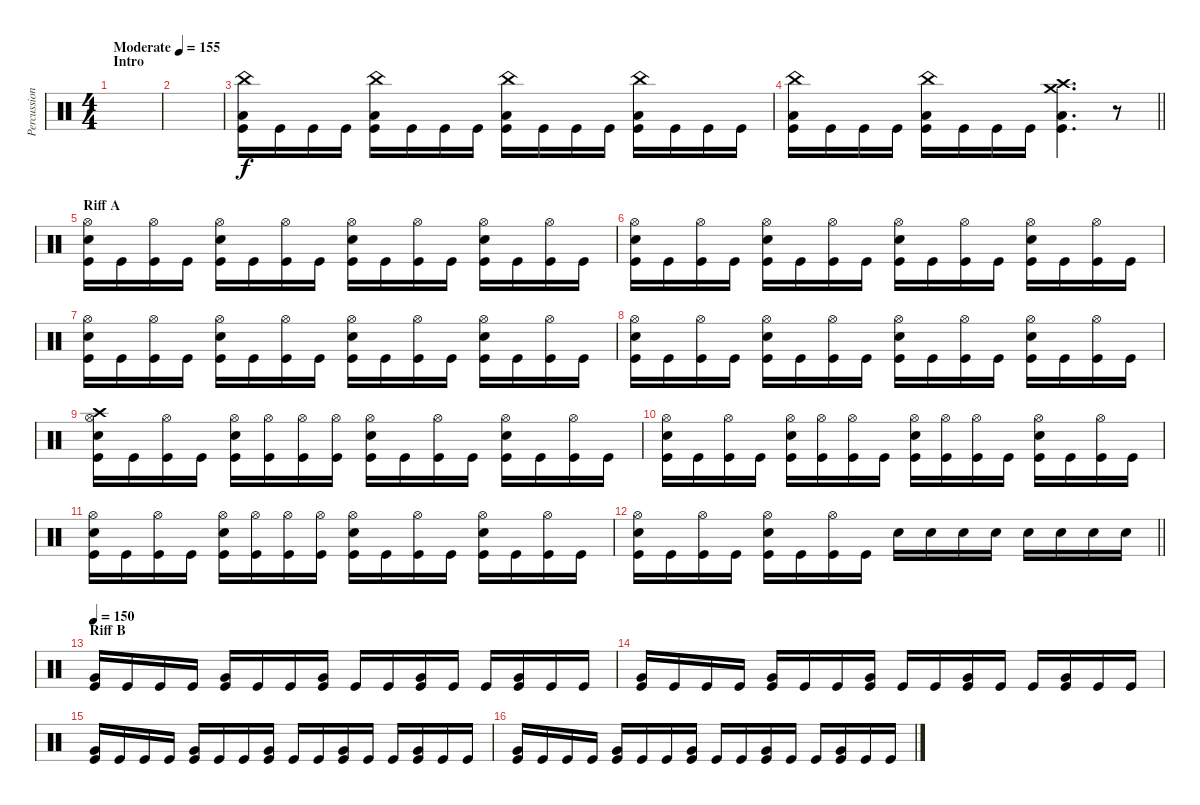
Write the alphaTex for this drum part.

\track ("Percussion" "Percussion") {instrument percussion}
\staff {score}
\articulation defaults
\ts (4 4)
\section ("" "Intro")
\tempo (155 "Moderate")
\clef neutral
\ks c
|
|
("China (hit)" "Low Floor Tom (hit)" "Kick (hit)").16 "Kick (hit)".16 "Kick (hit)".16 "Kick (hit)".16 ("China (hit)" "Low Floor Tom (hit)" "Kick (hit)").16 "Kick (hit)".16 "Kick (hit)".16 "Kick (hit)".16 ("China (hit)" "Low Floor Tom (hit)" "Kick (hit)").16 "Kick (hit)".16 "Kick (hit)".16 "Kick (hit)".16 ("China (hit)" "Low Floor Tom (hit)" "Kick (hit)").16 "Kick (hit)".16 "Kick (hit)".16 "Kick (hit)".16 |
\barLineRight lightlight
("China (hit)" "Low Floor Tom (hit)" "Kick (hit)").16 "Kick (hit)".16 "Kick (hit)".16 "Kick (hit)".16 ("China (hit)" "Low Floor Tom (hit)" "Kick (hit)").16 "Kick (hit)".16 "Kick (hit)".16 "Kick (hit)".16 ("Crash medium (hit)" "Crash high (hit)" "Low Floor Tom (hit)" "Kick (hit)").4{d} r.8 |
\section ("" "Riff A")
("Hi-Hat (open)" "Snare (hit) 2" "Kick (hit)").16 "Kick (hit)".16 ("Hi-Hat (open)" "Kick (hit)").16 "Kick (hit)".16 ("Hi-Hat (open)" "Snare (hit) 2" "Kick (hit)").16 "Kick (hit)".16 ("Hi-Hat (open)" "Kick (hit)").16 "Kick (hit)".16 ("Hi-Hat (open)" "Snare (hit) 2" "Kick (hit)").16 "Kick (hit)".16 ("Hi-Hat (open)" "Kick (hit)").16 "Kick (hit)".16 ("Hi-Hat (open)" "Snare (hit) 2" "Kick (hit)").16 "Kick (hit)".16 ("Hi-Hat (open)" "Kick (hit)").16 "Kick (hit)".16 |
("Hi-Hat (open)" "Snare (hit) 2" "Kick (hit)").16 "Kick (hit)".16 ("Hi-Hat (open)" "Kick (hit)").16 "Kick (hit)".16 ("Hi-Hat (open)" "Snare (hit) 2" "Kick (hit)").16 "Kick (hit)".16 ("Hi-Hat (open)" "Kick (hit)").16 "Kick (hit)".16 ("Hi-Hat (open)" "Snare (hit) 2" "Kick (hit)").16 "Kick (hit)".16 ("Hi-Hat (open)" "Kick (hit)").16 "Kick (hit)".16 ("Hi-Hat (open)" "Snare (hit) 2" "Kick (hit)").16 "Kick (hit)".16 ("Hi-Hat (open)" "Kick (hit)").16 "Kick (hit)".16 |
("Hi-Hat (open)" "Snare (hit) 2" "Kick (hit)").16 "Kick (hit)".16 ("Hi-Hat (open)" "Kick (hit)").16 "Kick (hit)".16 ("Hi-Hat (open)" "Snare (hit) 2" "Kick (hit)").16 "Kick (hit)".16 ("Hi-Hat (open)" "Kick (hit)").16 "Kick (hit)".16 ("Hi-Hat (open)" "Snare (hit) 2" "Kick (hit)").16 "Kick (hit)".16 ("Hi-Hat (open)" "Kick (hit)").16 "Kick (hit)".16 ("Hi-Hat (open)" "Snare (hit) 2" "Kick (hit)").16 "Kick (hit)".16 ("Hi-Hat (open)" "Kick (hit)").16 "Kick (hit)".16 |
("Hi-Hat (open)" "Snare (hit) 2" "Kick (hit)").16 "Kick (hit)".16 ("Hi-Hat (open)" "Kick (hit)").16 "Kick (hit)".16 ("Hi-Hat (open)" "Snare (hit) 2" "Kick (hit)").16 "Kick (hit)".16 ("Hi-Hat (open)" "Kick (hit)").16 "Kick (hit)".16 ("Hi-Hat (open)" "Snare (hit) 2" "Kick (hit)").16 "Kick (hit)".16 ("Hi-Hat (open)" "Kick (hit)").16 "Kick (hit)".16 ("Hi-Hat (open)" "Snare (hit) 2" "Kick (hit)").16 "Kick (hit)".16 ("Hi-Hat (open)" "Kick (hit)").16 "Kick (hit)".16 |
("Crash high (hit)" "Hi-Hat (open)" "Snare (hit) 2" "Kick (hit)").16 "Kick (hit)".16 ("Hi-Hat (open)" "Kick (hit)").16 "Kick (hit)".16 ("Hi-Hat (open)" "Snare (hit) 2" "Kick (hit)").16 ("Hi-Hat (open)" "Kick (hit)").16 ("Hi-Hat (open)" "Kick (hit)").16 ("Hi-Hat (open)" "Kick (hit)").16 ("Hi-Hat (open)" "Snare (hit) 2" "Kick (hit)").16 "Kick (hit)".16 ("Hi-Hat (open)" "Kick (hit)").16 "Kick (hit)".16 ("Hi-Hat (open)" "Snare (hit) 2" "Kick (hit)").16 "Kick (hit)".16 ("Hi-Hat (open)" "Kick (hit)").16 "Kick (hit)".16 |
("Hi-Hat (open)" "Snare (hit) 2" "Kick (hit)").16 "Kick (hit)".16 ("Hi-Hat (open)" "Kick (hit)").16 "Kick (hit)".16 ("Hi-Hat (open)" "Snare (hit) 2" "Kick (hit)").16 ("Hi-Hat (open)" "Kick (hit)").16 ("Hi-Hat (open)" "Kick (hit)").16 "Kick (hit)".16 ("Hi-Hat (open)" "Snare (hit) 2" "Kick (hit)").16 ("Hi-Hat (open)" "Kick (hit)").16 ("Hi-Hat (open)" "Kick (hit)").16 "Kick (hit)".16 ("Hi-Hat (open)" "Snare (hit) 2" "Kick (hit)").16 "Kick (hit)".16 ("Hi-Hat (open)" "Kick (hit)").16 "Kick (hit)".16 |
("Hi-Hat (open)" "Snare (hit) 2" "Kick (hit)").16 "Kick (hit)".16 ("Hi-Hat (open)" "Kick (hit)").16 "Kick (hit)".16 ("Hi-Hat (open)" "Snare (hit) 2" "Kick (hit)").16 ("Hi-Hat (open)" "Kick (hit)").16 ("Hi-Hat (open)" "Kick (hit)").16 ("Hi-Hat (open)" "Kick (hit)").16 ("Hi-Hat (open)" "Snare (hit) 2" "Kick (hit)").16 "Kick (hit)".16 ("Hi-Hat (open)" "Kick (hit)").16 "Kick (hit)".16 ("Hi-Hat (open)" "Snare (hit) 2" "Kick (hit)").16 "Kick (hit)".16 ("Hi-Hat (open)" "Kick (hit)").16 "Kick (hit)".16 |
\barLineRight lightlight
("Hi-Hat (open)" "Snare (hit) 2" "Kick (hit)").16 "Kick (hit)".16 ("Hi-Hat (open)" "Kick (hit)").16 "Kick (hit)".16 ("Hi-Hat (open)" "Snare (hit) 2" "Kick (hit)").16 "Kick (hit)".16 ("Hi-Hat (open)" "Kick (hit)").16 "Kick (hit)".16 "Snare (hit) 2".16 "Snare (hit) 2".16 "Snare (hit) 2".16 "Snare (hit) 2".16 "Snare (hit) 2".16 "Snare (hit) 2".16 "Snare (hit) 2".16 "Snare (hit) 2".16 |
\section ("" "Riff B")
\tempo 150
("Very Low Tom (hit)" "Kick (hit)").16 "Kick (hit)".16 "Kick (hit)".16 "Kick (hit)".16 ("Very Low Tom (hit)" "Kick (hit)").16 "Kick (hit)".16 "Kick (hit)".16 ("Very Low Tom (hit)" "Kick (hit)").16 "Kick (hit)".16 "Kick (hit)".16 ("Very Low Tom (hit)" "Kick (hit)").16 "Kick (hit)".16 "Kick (hit)".16 ("Very Low Tom (hit)" "Kick (hit)").16 "Kick (hit)".16 "Kick (hit)".16 |
("Very Low Tom (hit)" "Kick (hit)").16 "Kick (hit)".16 "Kick (hit)".16 "Kick (hit)".16 ("Very Low Tom (hit)" "Kick (hit)").16 "Kick (hit)".16 "Kick (hit)".16 ("Very Low Tom (hit)" "Kick (hit)").16 "Kick (hit)".16 "Kick (hit)".16 ("Very Low Tom (hit)" "Kick (hit)").16 "Kick (hit)".16 "Kick (hit)".16 ("Very Low Tom (hit)" "Kick (hit)").16 "Kick (hit)".16 "Kick (hit)".16 |
("Very Low Tom (hit)" "Kick (hit)").16 "Kick (hit)".16 "Kick (hit)".16 "Kick (hit)".16 ("Very Low Tom (hit)" "Kick (hit)").16 "Kick (hit)".16 "Kick (hit)".16 ("Very Low Tom (hit)" "Kick (hit)").16 "Kick (hit)".16 "Kick (hit)".16 ("Very Low Tom (hit)" "Kick (hit)").16 "Kick (hit)".16 "Kick (hit)".16 ("Very Low Tom (hit)" "Kick (hit)").16 "Kick (hit)".16 "Kick (hit)".16 |
("Very Low Tom (hit)" "Kick (hit)").16 "Kick (hit)".16 "Kick (hit)".16 "Kick (hit)".16 ("Very Low Tom (hit)" "Kick (hit)").16 "Kick (hit)".16 "Kick (hit)".16 ("Very Low Tom (hit)" "Kick (hit)").16 "Kick (hit)".16 "Kick (hit)".16 ("Very Low Tom (hit)" "Kick (hit)").16 "Kick (hit)".16 "Kick (hit)".16 ("Very Low Tom (hit)" "Kick (hit)").16 "Kick (hit)".16 "Kick (hit)".16
